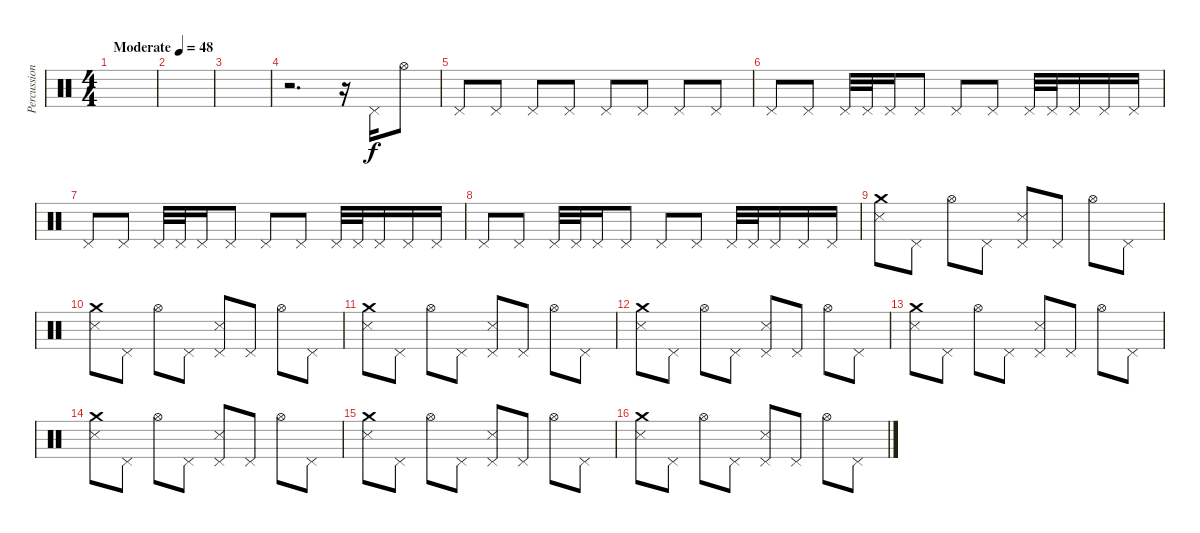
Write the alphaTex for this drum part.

\track ("Percussion" "Percussion") {instrument percussion}
\staff {score}
\articulation defaults
\ts (4 4)
\tempo (48 "Moderate")
\clef neutral
\ks c
|
|
|
r.2{d} r.16 "Pedal Hi-Hat (hit)".16 "Hi-Hat (open)".8 |
"Pedal Hi-Hat (hit)".8 "Pedal Hi-Hat (hit)".8 "Pedal Hi-Hat (hit)".8 "Pedal Hi-Hat (hit)".8 "Pedal Hi-Hat (hit)".8 "Pedal Hi-Hat (hit)".8 "Pedal Hi-Hat (hit)".8 "Pedal Hi-Hat (hit)".8 |
"Pedal Hi-Hat (hit)".8 "Pedal Hi-Hat (hit)".8 "Pedal Hi-Hat (hit)".32 "Pedal Hi-Hat (hit)".32 "Pedal Hi-Hat (hit)".16 "Pedal Hi-Hat (hit)".8 "Pedal Hi-Hat (hit)".8 "Pedal Hi-Hat (hit)".8 "Pedal Hi-Hat (hit)".32 "Pedal Hi-Hat (hit)".32 "Pedal Hi-Hat (hit)".16 "Pedal Hi-Hat (hit)".16 "Pedal Hi-Hat (hit)".16 |
"Pedal Hi-Hat (hit)".8 "Pedal Hi-Hat (hit)".8 "Pedal Hi-Hat (hit)".32 "Pedal Hi-Hat (hit)".32 "Pedal Hi-Hat (hit)".16 "Pedal Hi-Hat (hit)".8 "Pedal Hi-Hat (hit)".8 "Pedal Hi-Hat (hit)".8 "Pedal Hi-Hat (hit)".32 "Pedal Hi-Hat (hit)".32 "Pedal Hi-Hat (hit)".16 "Pedal Hi-Hat (hit)".16 "Pedal Hi-Hat (hit)".16 |
"Pedal Hi-Hat (hit)".8 "Pedal Hi-Hat (hit)".8 "Pedal Hi-Hat (hit)".32 "Pedal Hi-Hat (hit)".32 "Pedal Hi-Hat (hit)".16 "Pedal Hi-Hat (hit)".8 "Pedal Hi-Hat (hit)".8 "Pedal Hi-Hat (hit)".8 "Pedal Hi-Hat (hit)".32 "Pedal Hi-Hat (hit)".32 "Pedal Hi-Hat (hit)".16 "Pedal Hi-Hat (hit)".16 "Pedal Hi-Hat (hit)".16 |
("Crash medium (hit)" "Metronome (hit)").8 "Pedal Hi-Hat (hit)".8 "Hi-Hat (open)".8 "Pedal Hi-Hat (hit)".8 ("Pedal Hi-Hat (hit)" "Metronome (hit)").8 "Pedal Hi-Hat (hit)".8 "Hi-Hat (open)".8 "Pedal Hi-Hat (hit)".8 |
("Crash medium (hit)" "Metronome (hit)").8 "Pedal Hi-Hat (hit)".8 "Hi-Hat (open)".8 "Pedal Hi-Hat (hit)".8 ("Pedal Hi-Hat (hit)" "Metronome (hit)").8 "Pedal Hi-Hat (hit)".8 "Hi-Hat (open)".8 "Pedal Hi-Hat (hit)".8 |
("Crash medium (hit)" "Metronome (hit)").8 "Pedal Hi-Hat (hit)".8 "Hi-Hat (open)".8 "Pedal Hi-Hat (hit)".8 ("Pedal Hi-Hat (hit)" "Metronome (hit)").8 "Pedal Hi-Hat (hit)".8 "Hi-Hat (open)".8 "Pedal Hi-Hat (hit)".8 |
("Crash medium (hit)" "Metronome (hit)").8 "Pedal Hi-Hat (hit)".8 "Hi-Hat (open)".8 "Pedal Hi-Hat (hit)".8 ("Pedal Hi-Hat (hit)" "Metronome (hit)").8 "Pedal Hi-Hat (hit)".8 "Hi-Hat (open)".8 "Pedal Hi-Hat (hit)".8 |
("Crash medium (hit)" "Metronome (hit)").8 "Pedal Hi-Hat (hit)".8 "Hi-Hat (open)".8 "Pedal Hi-Hat (hit)".8 ("Pedal Hi-Hat (hit)" "Metronome (hit)").8 "Pedal Hi-Hat (hit)".8 "Hi-Hat (open)".8 "Pedal Hi-Hat (hit)".8 |
("Crash medium (hit)" "Metronome (hit)").8 "Pedal Hi-Hat (hit)".8 "Hi-Hat (open)".8 "Pedal Hi-Hat (hit)".8 ("Pedal Hi-Hat (hit)" "Metronome (hit)").8 "Pedal Hi-Hat (hit)".8 "Hi-Hat (open)".8 "Pedal Hi-Hat (hit)".8 |
("Crash medium (hit)" "Metronome (hit)").8 "Pedal Hi-Hat (hit)".8 "Hi-Hat (open)".8 "Pedal Hi-Hat (hit)".8 ("Pedal Hi-Hat (hit)" "Metronome (hit)").8 "Pedal Hi-Hat (hit)".8 "Hi-Hat (open)".8 "Pedal Hi-Hat (hit)".8 |
("Crash medium (hit)" "Metronome (hit)").8 "Pedal Hi-Hat (hit)".8 "Hi-Hat (open)".8 "Pedal Hi-Hat (hit)".8 ("Pedal Hi-Hat (hit)" "Metronome (hit)").8 "Pedal Hi-Hat (hit)".8 "Hi-Hat (open)".8 "Pedal Hi-Hat (hit)".8
